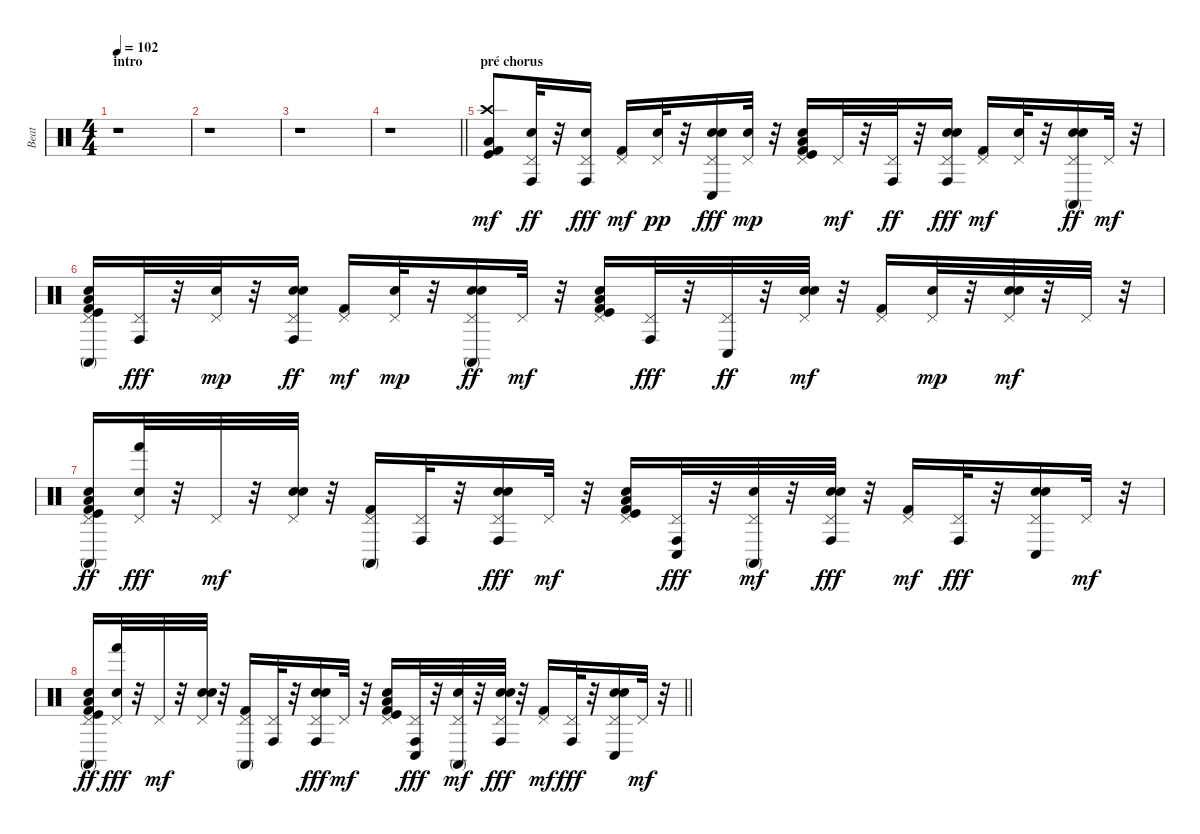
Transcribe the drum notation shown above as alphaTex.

\track ("Beat" "Beat") {instrument percussion}
\staff {score}
\articulation defaults
\ts (4 4)
\section ("" "intro")
\tempo 102
\clef neutral
\ks c
r.1{dy mf} |
r.1 |
r.1 |
\barLineRight lightlight
r.1 |
\section ("" "pré chorus")
("Kick (hit) 2" "Kick (hit)" "Low Tom (hit)" "Crash high (hit)").8 ("Pedal Hi-Hat (hit)" "Hand Clap (hit)" "Conga high (hit)").32{dy ff} r.32 ("Electric Snare (hit)" "Pedal Hi-Hat (hit)" "Conga high (hit)").16{dy fff} ("Kick (hit) 2" "Pedal Hi-Hat (hit)").16{dy mf} ("Pedal Hi-Hat (hit)" "Hand Clap (hit)").32{dy pp} r.32 ("Electric Snare (hit)" "Pedal Hi-Hat (hit)" "Hand Clap (hit)" "Conga low (hit)").16{dy fff} ("Pedal Hi-Hat (hit)" "Hand Clap (hit)").32{dy mp} r.32 ("Low Tom (hit)" "Kick (hit)" "Kick (hit) 2" "Pedal Hi-Hat (hit)" "Hand Clap (hit)").16 "Pedal Hi-Hat (hit)".32{dy mf} r.32 ("Pedal Hi-Hat (hit)" "Conga high (hit)").32{dy ff} r.32 ("Electric Snare (hit)" "Pedal Hi-Hat (hit)" "Hand Clap (hit)" "Conga high (hit)").16{dy fff} ("Kick (hit) 2" "Pedal Hi-Hat (hit)").16{dy mf} ("Pedal Hi-Hat (hit)" "Hand Clap (hit)").32 r.32 ("Electric Snare (hit)" "Pedal Hi-Hat (hit)" "Hand Clap (hit)" "Conga high (mute)").16{dy ff} "Pedal Hi-Hat (hit)".32{dy mf} r.32 |
("Low Tom (hit)" "Kick (hit)" "Kick (hit) 2" "Pedal Hi-Hat (hit)" "Hand Clap (hit)" "Conga high (mute)").16 ("Pedal Hi-Hat (hit)" "Conga high (hit)").32{dy fff} r.32 ("Pedal Hi-Hat (hit)" "Hand Clap (hit)").32{dy mp} r.32 ("Electric Snare (hit)" "Pedal Hi-Hat (hit)" "Hand Clap (hit)" "Conga high (hit)").16{dy ff} ("Kick (hit) 2" "Pedal Hi-Hat (hit)").16{dy mf} ("Pedal Hi-Hat (hit)" "Hand Clap (hit)").32{dy mp} r.32 ("Electric Snare (hit)" "Pedal Hi-Hat (hit)" "Hand Clap (hit)" "Conga high (mute)").16{dy ff} "Pedal Hi-Hat (hit)".32{dy mf} r.32 ("Low Tom (hit)" "Kick (hit)" "Kick (hit) 2" "Pedal Hi-Hat (hit)" "Hand Clap (hit)").16 ("Pedal Hi-Hat (hit)" "Conga high (hit)").32{dy fff} r.32 ("Pedal Hi-Hat (hit)" "Conga low (hit)").32{dy ff} r.32 ("Electric Snare (hit)" "Pedal Hi-Hat (hit)" "Hand Clap (hit)").32{dy mf} r.32 ("Kick (hit) 2" "Pedal Hi-Hat (hit)").16 ("Pedal Hi-Hat (hit)" "Hand Clap (hit)").32{dy mp} r.32 ("Electric Snare (hit)" "Pedal Hi-Hat (hit)" "Hand Clap (hit)").32{dy mf} r.32 "Pedal Hi-Hat (hit)".32 r.32 |
("Low Tom (hit)" "Kick (hit)" "Kick (hit) 2" "Pedal Hi-Hat (hit)" "Hand Clap (hit)" "Conga high (mute)").16{dy ff} ("Pedal Hi-Hat (hit)" "Hand Clap (hit)" "Hand (hit)").32{dy fff} r.32 "Pedal Hi-Hat (hit)".32{dy mf} r.32 ("Electric Snare (hit)" "Pedal Hi-Hat (hit)" "Hand Clap (hit)").32 r.32 ("Kick (hit) 2" "Pedal Hi-Hat (hit)" "Conga high (mute)").16 ("Pedal Hi-Hat (hit)" "Conga high (hit)").32 r.32 ("Electric Snare (hit)" "Pedal Hi-Hat (hit)" "Hand Clap (hit)" "Conga high (hit)").16{dy fff} "Pedal Hi-Hat (hit)".32{dy mf} r.32 ("Low Tom (hit)" "Kick (hit)" "Kick (hit) 2" "Pedal Hi-Hat (hit)" "Hand Clap (hit)").16 ("Pedal Hi-Hat (hit)" "Conga low (hit)" "Conga high (hit)").32{dy fff} r.32 ("Pedal Hi-Hat (hit)" "Hand Clap (hit)" "Conga high (mute)").32{dy mf} r.32 ("Electric Snare (hit)" "Pedal Hi-Hat (hit)" "Hand Clap (hit)" "Conga high (hit)").32{dy fff} r.32 ("Kick (hit) 2" "Pedal Hi-Hat (hit)").16{dy mf} ("Pedal Hi-Hat (hit)" "Conga high (hit)").32{dy fff} r.32 ("Electric Snare (hit)" "Pedal Hi-Hat (hit)" "Hand Clap (hit)" "Conga low (hit)").16 "Pedal Hi-Hat (hit)".32{dy mf} r.32 |
\barLineRight lightlight
("Low Tom (hit)" "Kick (hit)" "Kick (hit) 2" "Pedal Hi-Hat (hit)" "Hand Clap (hit)" "Conga high (mute)").16{dy ff} ("Pedal Hi-Hat (hit)" "Hand Clap (hit)" "Hand (hit)").32{dy fff} r.32 "Pedal Hi-Hat (hit)".32{dy mf} r.32 ("Electric Snare (hit)" "Pedal Hi-Hat (hit)" "Hand Clap (hit)").32 r.32 ("Kick (hit) 2" "Pedal Hi-Hat (hit)" "Conga high (mute)").16 ("Pedal Hi-Hat (hit)" "Conga high (hit)").32 r.32 ("Electric Snare (hit)" "Pedal Hi-Hat (hit)" "Hand Clap (hit)" "Conga high (hit)").16{dy fff} "Pedal Hi-Hat (hit)".32{dy mf} r.32 ("Low Tom (hit)" "Kick (hit)" "Kick (hit) 2" "Pedal Hi-Hat (hit)" "Hand Clap (hit)").16 ("Pedal Hi-Hat (hit)" "Conga low (hit)" "Conga high (hit)").32{dy fff} r.32 ("Pedal Hi-Hat (hit)" "Hand Clap (hit)" "Conga high (mute)").32{dy mf} r.32 ("Electric Snare (hit)" "Pedal Hi-Hat (hit)" "Hand Clap (hit)" "Conga high (hit)").32{dy fff} r.32 ("Kick (hit) 2" "Pedal Hi-Hat (hit)").16{dy mf} ("Pedal Hi-Hat (hit)" "Conga high (hit)").32{dy fff} r.32 ("Electric Snare (hit)" "Pedal Hi-Hat (hit)" "Hand Clap (hit)" "Conga low (hit)").16 "Pedal Hi-Hat (hit)".32{dy mf} r.32
